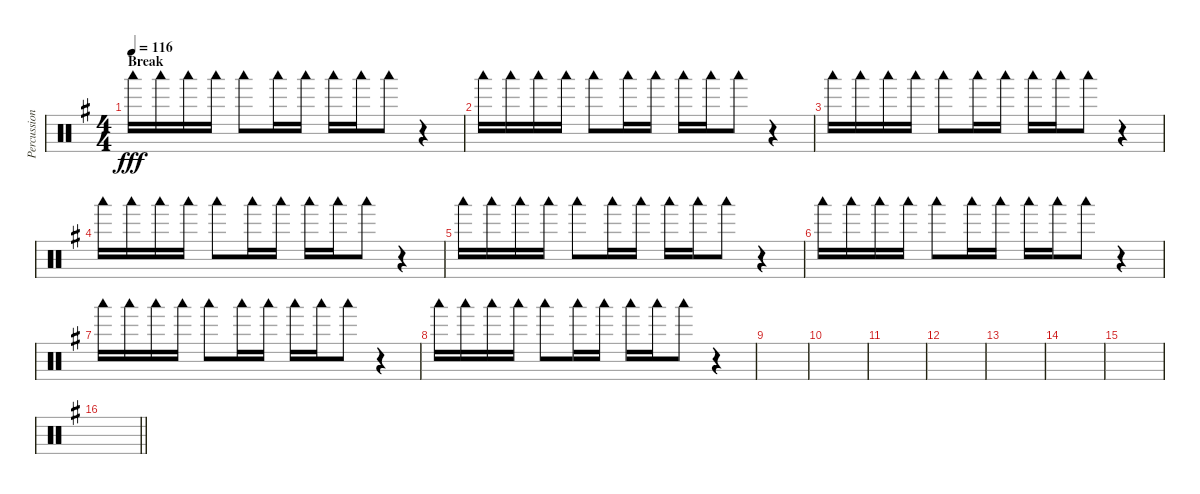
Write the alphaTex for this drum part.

\track ("Percussion" "Percussion") {instrument percussion}
\staff {score}
\articulation defaults
\ts (4 4)
\section ("" "Break")
\tempo 116
\clef neutral
\ks g "Woodblock low (hit)".16{dy fff} "Woodblock low (hit)".16 "Woodblock low (hit)".16 "Woodblock low (hit)".16 "Woodblock low (hit)".8 "Woodblock low (hit)".16 "Woodblock low (hit)".16 "Woodblock low (hit)".16 "Woodblock low (hit)".16 "Woodblock low (hit)".8
r.4 |
"Woodblock low (hit)".16 "Woodblock low (hit)".16 "Woodblock low (hit)".16 "Woodblock low (hit)".16 "Woodblock low (hit)".8 "Woodblock low (hit)".16 "Woodblock low (hit)".16 "Woodblock low (hit)".16 "Woodblock low (hit)".16 "Woodblock low (hit)".8 r.4 |
"Woodblock low (hit)".16 "Woodblock low (hit)".16 "Woodblock low (hit)".16 "Woodblock low (hit)".16 "Woodblock low (hit)".8 "Woodblock low (hit)".16 "Woodblock low (hit)".16 "Woodblock low (hit)".16 "Woodblock low (hit)".16 "Woodblock low (hit)".8 r.4 |
"Woodblock low (hit)".16 "Woodblock low (hit)".16 "Woodblock low (hit)".16 "Woodblock low (hit)".16 "Woodblock low (hit)".8 "Woodblock low (hit)".16 "Woodblock low (hit)".16 "Woodblock low (hit)".16 "Woodblock low (hit)".16 "Woodblock low (hit)".8 r.4 |
"Woodblock low (hit)".16 "Woodblock low (hit)".16 "Woodblock low (hit)".16 "Woodblock low (hit)".16 "Woodblock low (hit)".8 "Woodblock low (hit)".16 "Woodblock low (hit)".16 "Woodblock low (hit)".16 "Woodblock low (hit)".16 "Woodblock low (hit)".8 r.4 |
"Woodblock low (hit)".16 "Woodblock low (hit)".16 "Woodblock low (hit)".16 "Woodblock low (hit)".16 "Woodblock low (hit)".8 "Woodblock low (hit)".16 "Woodblock low (hit)".16 "Woodblock low (hit)".16 "Woodblock low (hit)".16 "Woodblock low (hit)".8 r.4 |
"Woodblock low (hit)".16 "Woodblock low (hit)".16 "Woodblock low (hit)".16 "Woodblock low (hit)".16 "Woodblock low (hit)".8 "Woodblock low (hit)".16 "Woodblock low (hit)".16 "Woodblock low (hit)".16 "Woodblock low (hit)".16 "Woodblock low (hit)".8 r.4 |
"Woodblock low (hit)".16 "Woodblock low (hit)".16 "Woodblock low (hit)".16 "Woodblock low (hit)".16 "Woodblock low (hit)".8 "Woodblock low (hit)".16 "Woodblock low (hit)".16 "Woodblock low (hit)".16 "Woodblock low (hit)".16 "Woodblock low (hit)".8 r.4 |
|
|
|
|
|
|
|
\barLineRight lightlight
